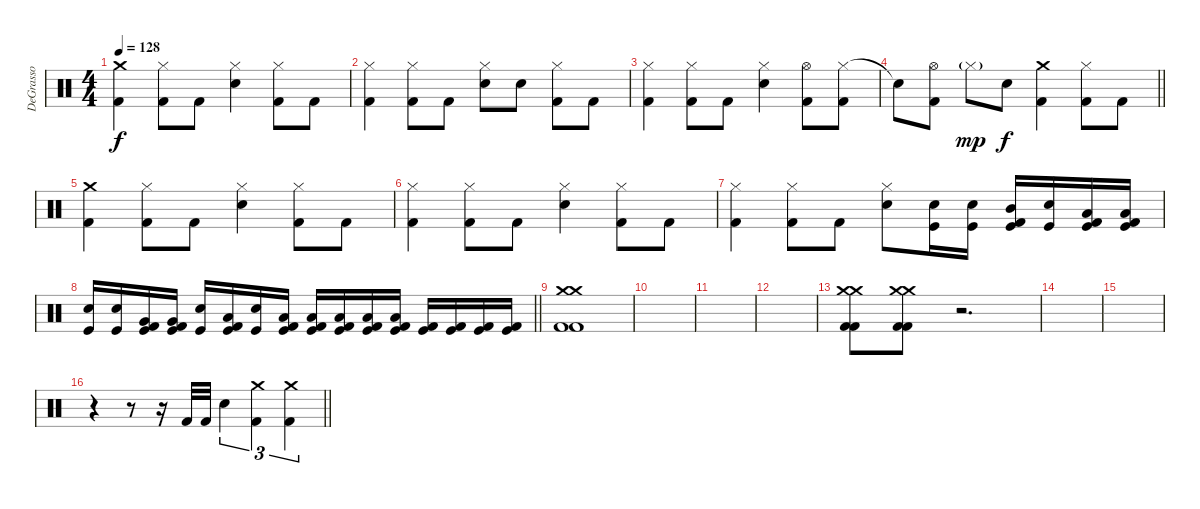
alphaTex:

\track ("DeGrasso" "DeGrasso") {instrument percussion}
\staff {score}
\articulation defaults
\ts (4 4)
\tempo 128
\clef neutral
\ks c
("Crash medium (hit)" "Kick (hit) 2").4{dy f} ("Hi-Hat (closed)" "Kick (hit) 2").8 "Kick (hit) 2".8 ("Hi-Hat (closed)" "Electric Snare (hit)").4 ("Hi-Hat (closed)" "Kick (hit) 2").8 "Kick (hit) 2".8 |
("Hi-Hat (closed)" "Kick (hit) 2").4 ("Hi-Hat (closed)" "Kick (hit) 2").8 "Kick (hit) 2".8 ("Hi-Hat (closed)" "Electric Snare (hit)").8 "Electric Snare (hit)".8 ("Hi-Hat (closed)" "Kick (hit) 2").8 "Kick (hit) 2".8 |
("Hi-Hat (closed)" "Kick (hit) 2").4 ("Hi-Hat (closed)" "Kick (hit) 2").8 "Kick (hit) 2".8 ("Hi-Hat (closed)" "Electric Snare (hit)").4 ("Hi-Hat (open)" "Kick (hit) 2").8 ("Hi-Hat (closed)" "Kick (hit) 2").8 |
\barLineRight lightlight "Snare (hit)"{t}.8
("Hi-Hat (open)" "Kick (hit) 2").8 "Hi-Hat (closed)"{g}.8{dy mp} "Electric Snare (hit)".8{dy f} ("Crash medium (hit)" "Kick (hit) 2").4 ("Hi-Hat (closed)" "Kick (hit) 2").8 "Kick (hit) 2".8 |
("Crash medium (hit)" "Kick (hit) 2").4 ("Hi-Hat (closed)" "Kick (hit) 2").8 "Kick (hit) 2".8 ("Hi-Hat (closed)" "Electric Snare (hit)").4 ("Hi-Hat (closed)" "Kick (hit) 2").8 "Kick (hit) 2".8 |
("Hi-Hat (closed)" "Kick (hit) 2").4 ("Hi-Hat (closed)" "Kick (hit) 2").8 "Kick (hit) 2".8 ("Hi-Hat (closed)" "Electric Snare (hit)").4 ("Hi-Hat (closed)" "Kick (hit) 2").8 "Kick (hit) 2".8 |
("Hi-Hat (closed)" "Kick (hit) 2").4 ("Hi-Hat (closed)" "Kick (hit) 2").8 "Kick (hit) 2".8 ("Hi-Hat (closed)" "Electric Snare (hit)").8 ("Electric Snare (hit)" "Kick (hit)").16 ("Electric Snare (hit)" "Kick (hit)").16 ("Mid Tom (hit)" "Kick (hit)" "Kick (hit) 2").16 ("Electric Snare (hit)" "Kick (hit)").16 ("Low Tom (hit)" "Kick (hit)" "Kick (hit) 2").16 ("Low Tom (hit)" "Kick (hit)" "Kick (hit) 2").16 |
\barLineRight lightlight
("Electric Snare (hit)" "Kick (hit)").16 ("Electric Snare (hit)" "Kick (hit)").16 ("Very Low Tom (hit)" "Kick (hit)" "Kick (hit) 2").16 ("Very Low Tom (hit)" "Kick (hit)" "Kick (hit) 2").16 ("Electric Snare (hit)" "Kick (hit)").16 ("Low Tom (hit)" "Kick (hit)" "Kick (hit) 2").16 ("Electric Snare (hit)" "Kick (hit)").16 ("Low Tom (hit)" "Kick (hit)" "Kick (hit) 2").16 ("Low Tom (hit)" "Kick (hit)" "Kick (hit) 2").16 ("Low Tom (hit)" "Kick (hit)" "Kick (hit) 2").16 ("Low Tom (hit)" "Kick (hit)" "Kick (hit) 2").16 ("Low Tom (hit)" "Kick (hit)" "Kick (hit) 2").16 ("Kick (hit)" "Kick (hit) 2").16 ("Kick (hit)" "Kick (hit) 2").16 ("Kick (hit)" "Kick (hit) 2").16 ("Kick (hit)" "Kick (hit) 2").16 |
("Crash medium (hit)" "Crash medium (hit)" "Kick (hit) 2" "Kick (hit) 2").1 |
|
|
|
("Crash medium (hit)" "Crash medium (hit)" "Kick (hit) 2" "Kick (hit) 2").8 ("Crash medium (hit)" "Crash medium (hit)" "Kick (hit) 2" "Kick (hit) 2").8 r.2{d} |
|
|
\barLineRight lightlight
r.4 r.8 r.16 "Kick (hit) 2".32 "Kick (hit) 2".32 "Electric Snare (hit)".4{tu (3 2)} ("Crash medium (hit)" "Kick (hit) 2").4{tu (3 2)} ("Crash medium (hit)" "Kick (hit) 2").4{tu (3 2)}
